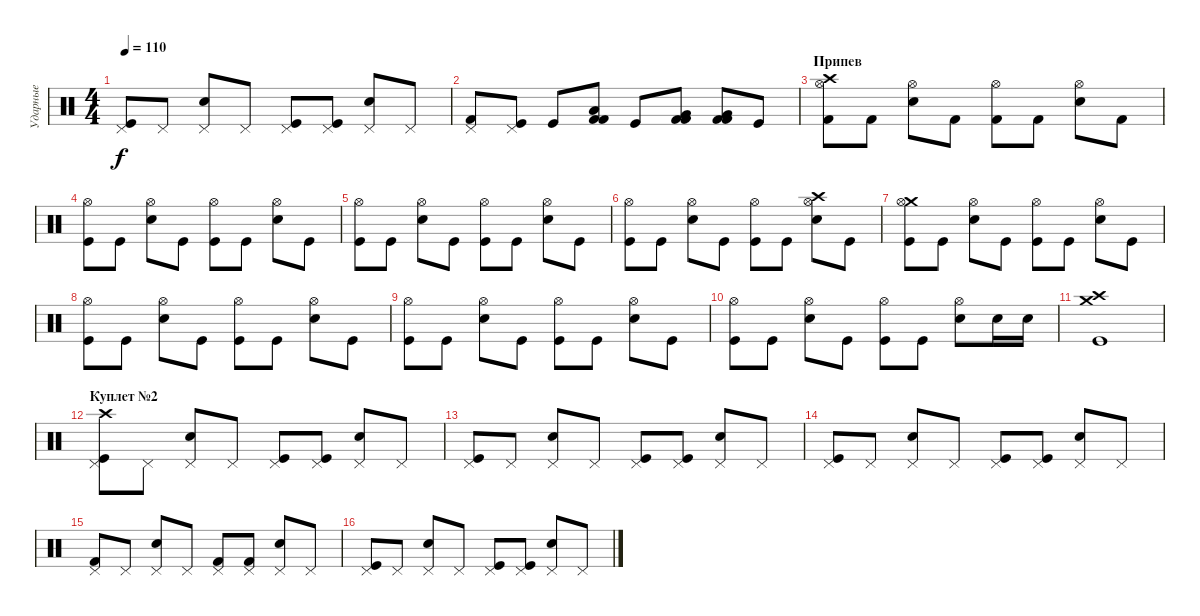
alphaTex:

\track ("Ударные" "Ударные") {instrument percussion}
\staff {score}
\articulation defaults
\ts (4 4)
\tempo 110
\clef neutral
\ks c
("Pedal Hi-Hat (hit)" "Kick (hit)").8{dy f} "Pedal Hi-Hat (hit)".8 ("Pedal Hi-Hat (hit)" "Electric Snare (hit)").8 "Pedal Hi-Hat (hit)".8 ("Pedal Hi-Hat (hit)" "Kick (hit)").8 ("Pedal Hi-Hat (hit)" "Kick (hit)").8 ("Pedal Hi-Hat (hit)" "Electric Snare (hit)").8 "Pedal Hi-Hat (hit)".8 |
("Pedal Hi-Hat (hit)" "Kick (hit) 2").8 ("Pedal Hi-Hat (hit)" "Kick (hit)").8 "Kick (hit)".8 ("Low Floor Tom (hit)" "Kick (hit) 2" "Kick (hit) 2").8 "Kick (hit)".8 ("Very Low Tom (hit)" "Kick (hit) 2" "Kick (hit) 2").8 ("Very Low Tom (hit)" "Kick (hit) 2" "Kick (hit) 2").8 "Kick (hit)".8 |
\section ("" "Припев")
("Crash high (hit)" "Hi-Hat (open)" "Kick (hit) 2").8 "Kick (hit) 2".8 ("Hi-Hat (open)" "Electric Snare (hit)").8 "Kick (hit) 2".8 ("Hi-Hat (open)" "Kick (hit) 2").8 "Kick (hit) 2".8 ("Hi-Hat (open)" "Electric Snare (hit)").8 "Kick (hit) 2".8 |
("Hi-Hat (open)" "Kick (hit)").8 "Kick (hit)".8 ("Hi-Hat (open)" "Electric Snare (hit)").8 "Kick (hit)".8 ("Hi-Hat (open)" "Kick (hit)").8 "Kick (hit)".8 ("Hi-Hat (open)" "Electric Snare (hit)").8 "Kick (hit)".8 |
("Hi-Hat (open)" "Kick (hit)").8 "Kick (hit)".8 ("Hi-Hat (open)" "Electric Snare (hit)").8 "Kick (hit)".8 ("Hi-Hat (open)" "Kick (hit)").8 "Kick (hit)".8 ("Hi-Hat (open)" "Electric Snare (hit)").8 "Kick (hit)".8 |
("Hi-Hat (open)" "Kick (hit)").8 "Kick (hit)".8 ("Hi-Hat (open)" "Electric Snare (hit)").8 "Kick (hit)".8 ("Hi-Hat (open)" "Kick (hit)").8 "Kick (hit)".8 ("Crash high (hit)" "Hi-Hat (open)" "Electric Snare (hit)").8 "Kick (hit)".8 |
("Crash medium (hit)" "Hi-Hat (open)" "Kick (hit)").8 "Kick (hit)".8 ("Hi-Hat (open)" "Electric Snare (hit)").8 "Kick (hit)".8 ("Hi-Hat (open)" "Kick (hit)").8 "Kick (hit)".8 ("Hi-Hat (open)" "Electric Snare (hit)").8 "Kick (hit)".8 |
("Hi-Hat (open)" "Kick (hit)").8 "Kick (hit)".8 ("Hi-Hat (open)" "Electric Snare (hit)").8 "Kick (hit)".8 ("Hi-Hat (open)" "Kick (hit)").8 "Kick (hit)".8 ("Hi-Hat (open)" "Electric Snare (hit)").8 "Kick (hit)".8 |
("Hi-Hat (open)" "Kick (hit)").8 "Kick (hit)".8 ("Hi-Hat (open)" "Electric Snare (hit)").8 "Kick (hit)".8 ("Hi-Hat (open)" "Kick (hit)").8 "Kick (hit)".8 ("Hi-Hat (open)" "Electric Snare (hit)").8 "Kick (hit)".8 |
("Hi-Hat (open)" "Kick (hit)").8 "Kick (hit)".8 ("Hi-Hat (open)" "Electric Snare (hit)").8 "Kick (hit)".8 ("Hi-Hat (open)" "Kick (hit)").8 "Kick (hit)".8 ("Hi-Hat (open)" "Snare (hit) 2").8 "Snare (hit) 2".16 "Snare (hit) 2".16 |
("Crash high (hit)" "Crash medium (hit)" "Kick (hit)").1 |
\section ("" "Куплет №2")
("Crash high (hit)" "Pedal Hi-Hat (hit)" "Kick (hit)").8 "Pedal Hi-Hat (hit)".8 ("Pedal Hi-Hat (hit)" "Electric Snare (hit)").8 "Pedal Hi-Hat (hit)".8 ("Pedal Hi-Hat (hit)" "Kick (hit)").8 ("Pedal Hi-Hat (hit)" "Kick (hit)").8 ("Pedal Hi-Hat (hit)" "Electric Snare (hit)").8 "Pedal Hi-Hat (hit)".8 |
("Pedal Hi-Hat (hit)" "Kick (hit)").8 "Pedal Hi-Hat (hit)".8 ("Pedal Hi-Hat (hit)" "Electric Snare (hit)").8 "Pedal Hi-Hat (hit)".8 ("Pedal Hi-Hat (hit)" "Kick (hit)").8 ("Pedal Hi-Hat (hit)" "Kick (hit)").8 ("Pedal Hi-Hat (hit)" "Electric Snare (hit)").8 "Pedal Hi-Hat (hit)".8 |
("Pedal Hi-Hat (hit)" "Kick (hit)").8 "Pedal Hi-Hat (hit)".8 ("Pedal Hi-Hat (hit)" "Electric Snare (hit)").8 "Pedal Hi-Hat (hit)".8 ("Pedal Hi-Hat (hit)" "Kick (hit)").8 ("Pedal Hi-Hat (hit)" "Kick (hit)").8 ("Pedal Hi-Hat (hit)" "Electric Snare (hit)").8 "Pedal Hi-Hat (hit)".8 |
("Pedal Hi-Hat (hit)" "Kick (hit) 2").8 "Pedal Hi-Hat (hit)".8 ("Pedal Hi-Hat (hit)" "Electric Snare (hit)").8 "Pedal Hi-Hat (hit)".8 ("Pedal Hi-Hat (hit)" "Kick (hit) 2").8 ("Pedal Hi-Hat (hit)" "Kick (hit) 2").8 ("Pedal Hi-Hat (hit)" "Electric Snare (hit)").8 "Pedal Hi-Hat (hit)".8 |
("Pedal Hi-Hat (hit)" "Kick (hit)").8 "Pedal Hi-Hat (hit)".8 ("Pedal Hi-Hat (hit)" "Electric Snare (hit)").8 "Pedal Hi-Hat (hit)".8 ("Pedal Hi-Hat (hit)" "Kick (hit)").8 ("Pedal Hi-Hat (hit)" "Kick (hit)").8 ("Pedal Hi-Hat (hit)" "Electric Snare (hit)").8 "Pedal Hi-Hat (hit)".8
